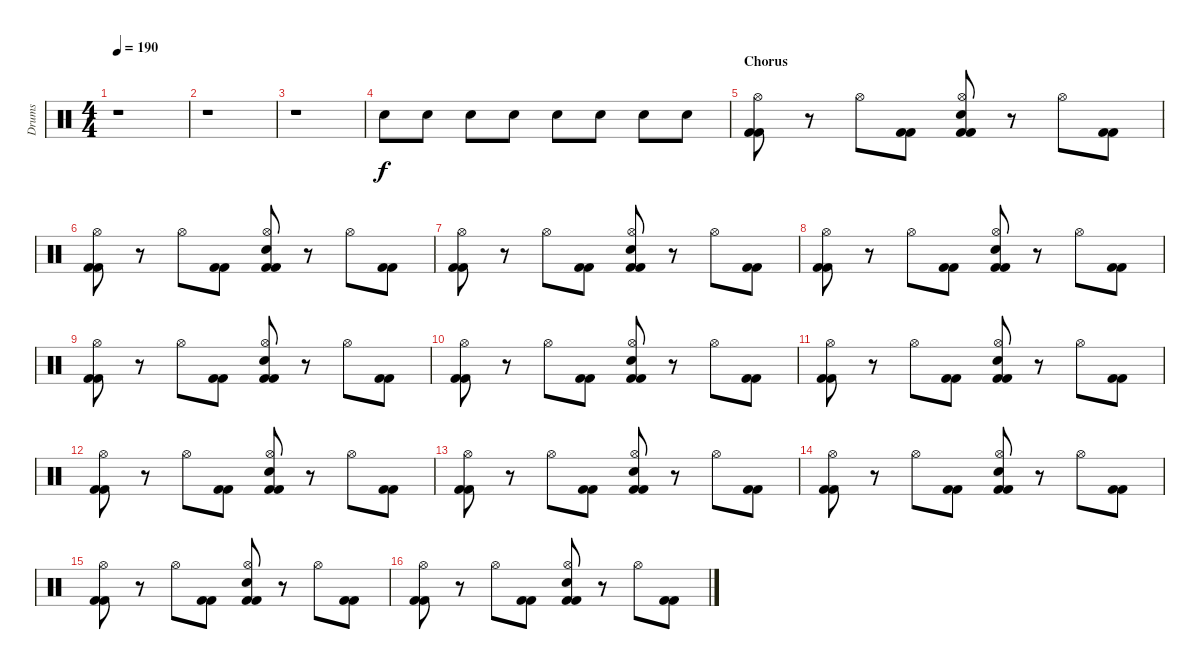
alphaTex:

\track ("Drums" "Drums") {instrument percussion}
\staff {score}
\articulation defaults
\ts (4 4)
\tempo 190
\clef neutral
\ks c
r.1{dy f} |
r.1 |
r.1 |
"Snare (hit) 2".8 "Snare (hit) 2".8 "Snare (hit) 2".8 "Snare (hit) 2".8 "Snare (hit) 2".8 "Snare (hit) 2".8 "Snare (hit) 2".8 "Snare (hit) 2".8 |
\section ("" "Chorus")
("Hi-Hat (open)" "Kick (hit) 2" "Kick (hit) 2").8 r.8 "Hi-Hat (open)".8 ("Kick (hit) 2" "Kick (hit) 2").8 ("Hi-Hat (open)" "Snare (hit) 2" "Kick (hit) 2" "Kick (hit) 2").8 r.8 "Hi-Hat (open)".8 ("Kick (hit) 2" "Kick (hit) 2").8 |
("Hi-Hat (open)" "Kick (hit) 2" "Kick (hit) 2").8 r.8 "Hi-Hat (open)".8 ("Kick (hit) 2" "Kick (hit) 2").8 ("Hi-Hat (open)" "Snare (hit) 2" "Kick (hit) 2" "Kick (hit) 2").8 r.8 "Hi-Hat (open)".8 ("Kick (hit) 2" "Kick (hit) 2").8 |
("Hi-Hat (open)" "Kick (hit) 2" "Kick (hit) 2").8 r.8 "Hi-Hat (open)".8 ("Kick (hit) 2" "Kick (hit) 2").8 ("Hi-Hat (open)" "Snare (hit) 2" "Kick (hit) 2" "Kick (hit) 2").8 r.8 "Hi-Hat (open)".8 ("Kick (hit) 2" "Kick (hit) 2").8 |
("Hi-Hat (open)" "Kick (hit) 2" "Kick (hit) 2").8 r.8 "Hi-Hat (open)".8 ("Kick (hit) 2" "Kick (hit) 2").8 ("Hi-Hat (open)" "Snare (hit) 2" "Kick (hit) 2" "Kick (hit) 2").8 r.8 "Hi-Hat (open)".8 ("Kick (hit) 2" "Kick (hit) 2").8 |
("Hi-Hat (open)" "Kick (hit) 2" "Kick (hit) 2").8 r.8 "Hi-Hat (open)".8 ("Kick (hit) 2" "Kick (hit) 2").8 ("Hi-Hat (open)" "Snare (hit) 2" "Kick (hit) 2" "Kick (hit) 2").8 r.8 "Hi-Hat (open)".8 ("Kick (hit) 2" "Kick (hit) 2").8 |
("Hi-Hat (open)" "Kick (hit) 2" "Kick (hit) 2").8 r.8 "Hi-Hat (open)".8 ("Kick (hit) 2" "Kick (hit) 2").8 ("Hi-Hat (open)" "Snare (hit) 2" "Kick (hit) 2" "Kick (hit) 2").8 r.8 "Hi-Hat (open)".8 ("Kick (hit) 2" "Kick (hit) 2").8 |
("Hi-Hat (open)" "Kick (hit) 2" "Kick (hit) 2").8 r.8 "Hi-Hat (open)".8 ("Kick (hit) 2" "Kick (hit) 2").8 ("Hi-Hat (open)" "Snare (hit) 2" "Kick (hit) 2" "Kick (hit) 2").8 r.8 "Hi-Hat (open)".8 ("Kick (hit) 2" "Kick (hit) 2").8 |
("Hi-Hat (open)" "Kick (hit) 2" "Kick (hit) 2").8 r.8 "Hi-Hat (open)".8 ("Kick (hit) 2" "Kick (hit) 2").8 ("Hi-Hat (open)" "Snare (hit) 2" "Kick (hit) 2" "Kick (hit) 2").8 r.8 "Hi-Hat (open)".8 ("Kick (hit) 2" "Kick (hit) 2").8 |
("Hi-Hat (open)" "Kick (hit) 2" "Kick (hit) 2").8 r.8 "Hi-Hat (open)".8 ("Kick (hit) 2" "Kick (hit) 2").8 ("Hi-Hat (open)" "Snare (hit) 2" "Kick (hit) 2" "Kick (hit) 2").8 r.8 "Hi-Hat (open)".8 ("Kick (hit) 2" "Kick (hit) 2").8 |
("Hi-Hat (open)" "Kick (hit) 2" "Kick (hit) 2").8 r.8 "Hi-Hat (open)".8 ("Kick (hit) 2" "Kick (hit) 2").8 ("Hi-Hat (open)" "Snare (hit) 2" "Kick (hit) 2" "Kick (hit) 2").8 r.8 "Hi-Hat (open)".8 ("Kick (hit) 2" "Kick (hit) 2").8 |
("Hi-Hat (open)" "Kick (hit) 2" "Kick (hit) 2").8 r.8 "Hi-Hat (open)".8 ("Kick (hit) 2" "Kick (hit) 2").8 ("Hi-Hat (open)" "Snare (hit) 2" "Kick (hit) 2" "Kick (hit) 2").8 r.8 "Hi-Hat (open)".8 ("Kick (hit) 2" "Kick (hit) 2").8 |
("Hi-Hat (open)" "Kick (hit) 2" "Kick (hit) 2").8 r.8 "Hi-Hat (open)".8 ("Kick (hit) 2" "Kick (hit) 2").8 ("Hi-Hat (open)" "Snare (hit) 2" "Kick (hit) 2" "Kick (hit) 2").8 r.8 "Hi-Hat (open)".8 ("Kick (hit) 2" "Kick (hit) 2").8
